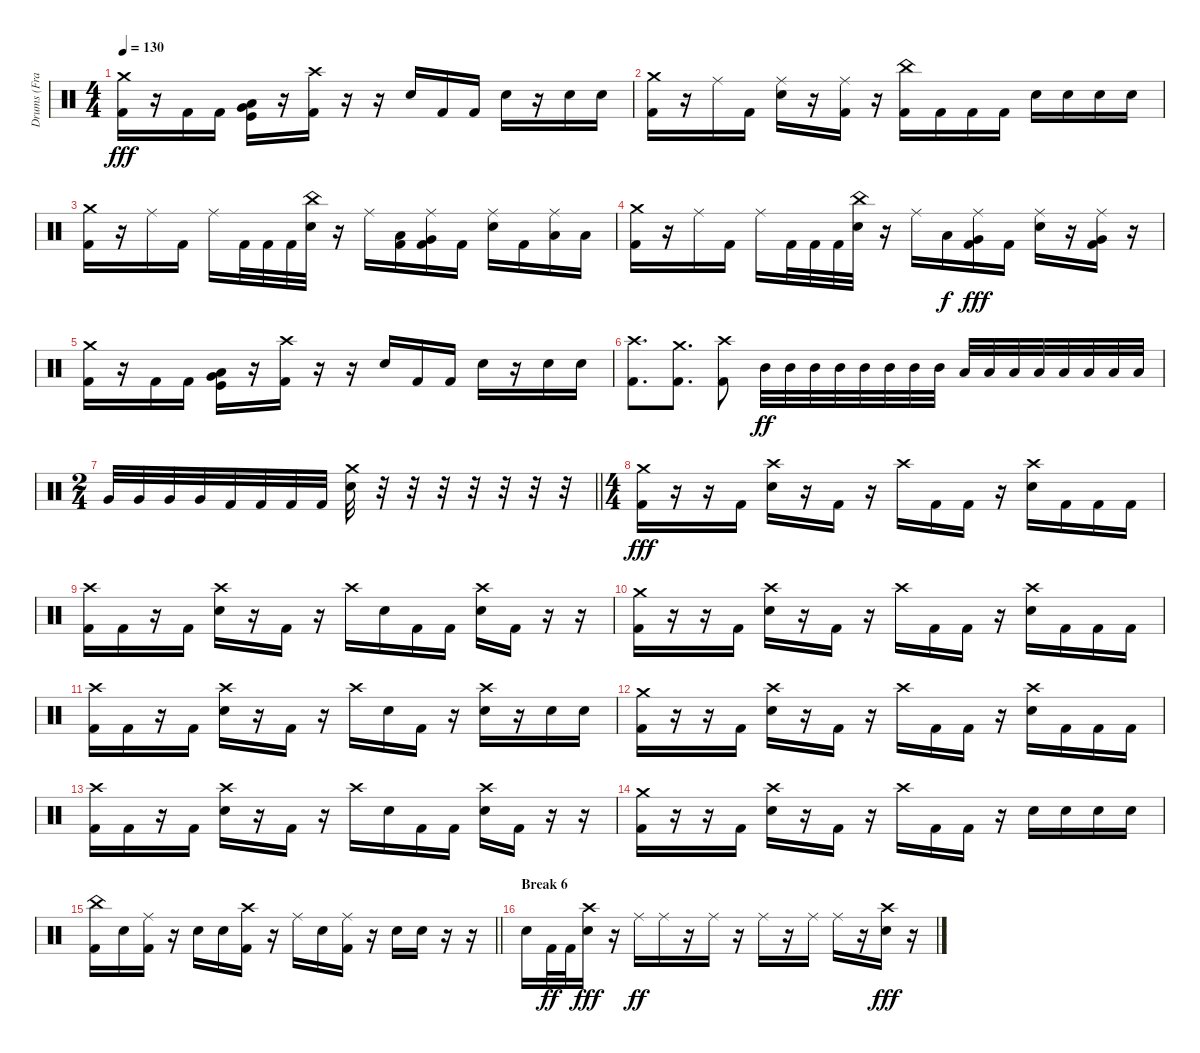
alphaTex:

\track ("Drums (Franky)" "Drums (Fra") {instrument percussion}
\staff {score}
\articulation defaults
\ts (4 4)
\tempo 130
\clef neutral
\ks c
("Crash medium (hit)" "Kick (hit) 2").16{dy fff} r.16 "Kick (hit) 2".16 "Kick (hit) 2".16 ("Low Tom (hit)" "Very Low Tom (hit)" "Kick (hit)").16 r.16 ("Crash high (hit)" "Kick (hit) 2").16 r.16 r.16 "Electric Snare (hit)".16 "Kick (hit) 2".16 "Kick (hit) 2".16 "Electric Snare (hit)".16 r.16 "Electric Snare (hit)".16 "Electric Snare (hit)".16 |
("Crash medium (hit)" "Kick (hit) 2").16 r.16 "Ride (middle)".16 "Kick (hit) 2".16 ("Ride (middle)" "Electric Snare (hit)").16 r.16 ("Ride (middle)" "Kick (hit) 2").16 r.16 ("China (hit)" "Kick (hit) 2").16 "Kick (hit) 2".16 "Kick (hit) 2".16 "Kick (hit) 2".16 "Electric Snare (hit)".16 "Electric Snare (hit)".16 "Electric Snare (hit)".16 "Electric Snare (hit)".16 |
("Crash medium (hit)" "Kick (hit) 2").16 r.16 "Ride (middle)".16 "Kick (hit) 2".16 "Ride (middle)".16 "Kick (hit) 2".32 "Kick (hit) 2".32 "Kick (hit) 2".32 ("China (hit)" "Electric Snare (hit)").32 r.16 "Ride (middle)".16 ("Low Tom (hit)" "Kick (hit) 2").16 ("Ride (middle)" "Very Low Tom (hit)" "Kick (hit) 2").16 "Kick (hit) 2".16 ("Ride (middle)" "Electric Snare (hit)").16 "Kick (hit) 2".16 ("Ride (middle)" "Low Tom (hit)").16 "Low Tom (hit)".16 |
("Crash medium (hit)" "Kick (hit) 2").16 r.16 "Ride (middle)".16 "Kick (hit) 2".16 "Ride (middle)".16 "Kick (hit) 2".32 "Kick (hit) 2".32 "Kick (hit) 2".32 ("China (hit)" "Electric Snare (hit)").32 r.16 "Ride (middle)".16 "Low Tom (hit)".16{dy f} ("Ride (middle)" "Very Low Tom (hit)" "Kick (hit) 2").16{dy fff} "Kick (hit) 2".16 ("Ride (middle)" "Electric Snare (hit)").16 r.16 ("Ride (middle)" "Very Low Tom (hit)" "Kick (hit) 2").16 r.16 |
("Crash medium (hit)" "Kick (hit) 2").16 r.16 "Kick (hit) 2".16 "Kick (hit) 2".16 ("Low Tom (hit)" "Very Low Tom (hit)" "Kick (hit)").16 r.16 ("Crash high (hit)" "Kick (hit) 2").16 r.16 r.16 "Electric Snare (hit)".16 "Kick (hit) 2".16 "Kick (hit) 2".16 "Electric Snare (hit)".16 r.16 "Electric Snare (hit)".16 "Electric Snare (hit)".16 |
("Crash high (hit)" "Kick (hit) 2").8{d} ("Crash medium (hit)" "Kick (hit) 2").8{d} ("Crash high (hit)" "Kick (hit) 2").8 "Mid Tom (hit)".32{dy ff} "Mid Tom (hit)".32 "Mid Tom (hit)".32 "Mid Tom (hit)".32 "Mid Tom (hit)".32 "Mid Tom (hit)".32 "Mid Tom (hit)".32 "Mid Tom (hit)".32 "Low Tom (hit)".32 "Low Tom (hit)".32 "Low Tom (hit)".32 "Low Tom (hit)".32 "Low Tom (hit)".32 "Low Tom (hit)".32 "Low Tom (hit)".32 "Low Tom (hit)".32 |
\ts (2 4)
\barLineRight lightlight "Very Low Tom (hit)".32 "Very Low Tom (hit)".32 "Very Low Tom (hit)".32 "Very Low Tom (hit)".32 "Kick (hit) 2".32 "Kick (hit) 2".32 "Kick (hit) 2".32 "Kick (hit) 2".32
("Crash medium (hit)" "Electric Snare (hit)").32 r.32 r.32 r.32 r.32 r.32 r.32 r.32 |
\ts (4 4)
("Crash medium (hit)" "Kick (hit) 2").16{dy fff} r.16 r.16 "Kick (hit) 2".16 ("Crash high (hit)" "Electric Snare (hit)").16 r.16 "Kick (hit) 2".16 r.16 "Crash high (hit)".16 "Kick (hit) 2".16 "Kick (hit) 2".16 r.16 ("Crash high (hit)" "Electric Snare (hit)").16 "Kick (hit) 2".16 "Kick (hit) 2".16 "Kick (hit) 2".16 |
("Crash high (hit)" "Kick (hit) 2").16 "Kick (hit) 2".16 r.16 "Kick (hit) 2".16 ("Crash high (hit)" "Electric Snare (hit)").16 r.16 "Kick (hit) 2".16 r.16 "Crash high (hit)".16 "Electric Snare (hit)".16 "Kick (hit) 2".16 "Kick (hit) 2".16 ("Crash high (hit)" "Electric Snare (hit)").16 "Kick (hit) 2".16 r.16 r.16 |
("Crash medium (hit)" "Kick (hit) 2").16 r.16 r.16 "Kick (hit) 2".16 ("Crash high (hit)" "Electric Snare (hit)").16 r.16 "Kick (hit) 2".16 r.16 "Crash high (hit)".16 "Kick (hit) 2".16 "Kick (hit) 2".16 r.16 ("Crash high (hit)" "Electric Snare (hit)").16 "Kick (hit) 2".16 "Kick (hit) 2".16 "Kick (hit) 2".16 |
("Crash high (hit)" "Kick (hit) 2").16 "Kick (hit) 2".16 r.16 "Kick (hit) 2".16 ("Crash high (hit)" "Electric Snare (hit)").16 r.16 "Kick (hit) 2".16 r.16 "Crash high (hit)".16 "Electric Snare (hit)".16 "Kick (hit) 2".16 r.16 ("Crash high (hit)" "Electric Snare (hit)").16 r.16 "Electric Snare (hit)".16 "Electric Snare (hit)".16 |
("Crash medium (hit)" "Kick (hit) 2").16 r.16 r.16 "Kick (hit) 2".16 ("Crash high (hit)" "Electric Snare (hit)").16 r.16 "Kick (hit) 2".16 r.16 "Crash high (hit)".16 "Kick (hit) 2".16 "Kick (hit) 2".16 r.16 ("Crash high (hit)" "Electric Snare (hit)").16 "Kick (hit) 2".16 "Kick (hit) 2".16 "Kick (hit) 2".16 |
("Crash high (hit)" "Kick (hit) 2").16 "Kick (hit) 2".16 r.16 "Kick (hit) 2".16 ("Crash high (hit)" "Electric Snare (hit)").16 r.16 "Kick (hit) 2".16 r.16 "Crash high (hit)".16 "Electric Snare (hit)".16 "Kick (hit) 2".16 "Kick (hit) 2".16 ("Crash high (hit)" "Electric Snare (hit)").16 "Kick (hit) 2".16 r.16 r.16 |
("Crash medium (hit)" "Kick (hit) 2").16 r.16 r.16 "Kick (hit) 2".16 ("Crash high (hit)" "Electric Snare (hit)").16 r.16 "Kick (hit) 2".16 r.16 "Crash high (hit)".16 "Kick (hit) 2".16 "Kick (hit) 2".16 r.16 "Electric Snare (hit)".16 "Electric Snare (hit)".16 "Electric Snare (hit)".16 "Electric Snare (hit)".16 |
\barLineRight lightlight
("China (hit)" "Kick (hit) 2").16 "Electric Snare (hit)".16 ("Ride (middle)" "Kick (hit) 2").16 r.16 "Electric Snare (hit)".16 "Electric Snare (hit)".16 ("Crash high (hit)" "Kick (hit) 2").16 r.16 "Ride (middle)".16 "Electric Snare (hit)".16 ("Ride (middle)" "Kick (hit) 2").16 r.16 "Electric Snare (hit)".16 "Electric Snare (hit)".16 r.16 r.16 |
\section ("" "Break 6")
"Electric Snare (hit)".16 "Kick (hit) 2".32{dy ff} "Kick (hit) 2".32 ("Crash high (hit)" "Electric Snare (hit)").16{dy fff} r.16 "Ride (middle)".16{dy ff} "Ride (middle)".16 r.16 "Ride (middle)".16 r.16 "Ride (middle)".16 r.16 "Ride (middle)".16 "Ride (middle)".16 r.16 ("Crash high (hit)" "Electric Snare (hit)").16{dy fff} r.16
